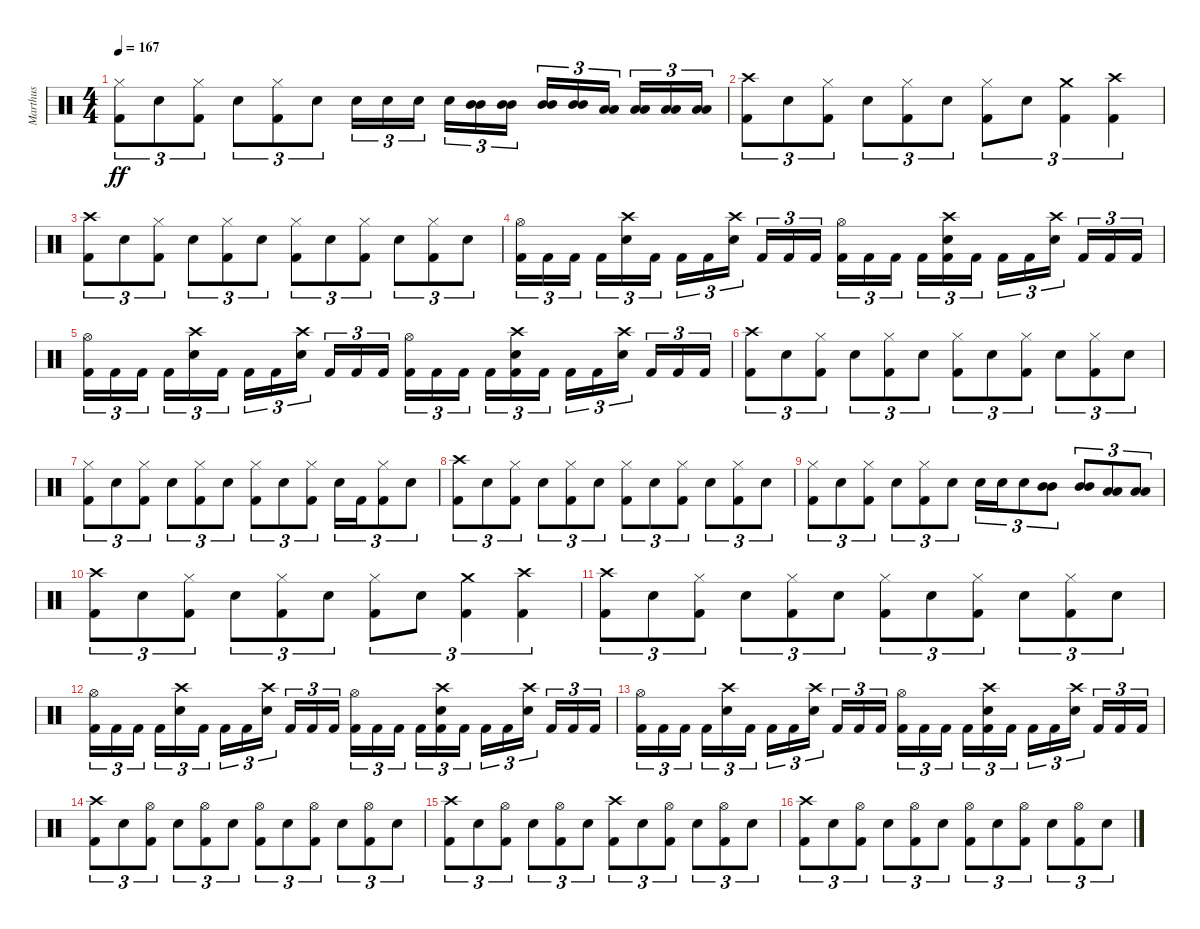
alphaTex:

\track ("Marthus" "Marthus") {instrument percussion}
\staff {score}
\articulation defaults
\ts (4 4)
\tempo 167
\clef neutral
\ks c
("Hi-Hat (closed)" "Kick (hit) 2").8{tu (3 2) dy ff} "Electric Snare (hit)".8{tu (3 2)} ("Hi-Hat (closed)" "Kick (hit) 2").8{tu (3 2)} "Electric Snare (hit)".8{tu (3 2)} ("Hi-Hat (closed)" "Kick (hit) 2").8{tu (3 2)} "Electric Snare (hit)".8{tu (3 2)} "Electric Snare (hit)".16{tu (3 2)} "Electric Snare (hit)".16{tu (3 2)} "Electric Snare (hit)".16{tu (3 2) beam splitsecondary} "Electric Snare (hit)".16{tu (3 2)} ("Mid Tom (hit)" "Mid Tom (hit)").16{tu (3 2)} ("Mid Tom (hit)" "Mid Tom (hit)").16{tu (3 2)} ("Mid Tom (hit)" "Mid Tom (hit)").16{tu (3 2)} ("Mid Tom (hit)" "Mid Tom (hit)").16{tu (3 2)} ("Low Tom (hit)" "Low Tom (hit)").16{tu (3 2) beam splitsecondary} ("Low Tom (hit)" "Low Tom (hit)").16{tu (3 2)} ("Low Tom (hit)" "Low Tom (hit)").16{tu (3 2)} ("Low Tom (hit)" "Low Tom (hit)").16{tu (3 2)} |
("Crash high (hit)" "Kick (hit) 2").8{tu (3 2)} "Electric Snare (hit)".8{tu (3 2)} ("Hi-Hat (closed)" "Kick (hit) 2").8{tu (3 2)} "Electric Snare (hit)".8{tu (3 2)} ("Hi-Hat (closed)" "Kick (hit) 2").8{tu (3 2)} "Electric Snare (hit)".8{tu (3 2)} ("Hi-Hat (closed)" "Kick (hit) 2").8{tu (3 2)} "Electric Snare (hit)".8{tu (3 2)} ("Crash medium (hit)" "Kick (hit) 2").4{tu (3 2)} ("Crash high (hit)" "Kick (hit) 2").4{tu (3 2)} |
("Crash high (hit)" "Kick (hit) 2").8{tu (3 2)} "Electric Snare (hit)".8{tu (3 2)} ("Hi-Hat (closed)" "Kick (hit) 2").8{tu (3 2)} "Electric Snare (hit)".8{tu (3 2)} ("Hi-Hat (closed)" "Kick (hit) 2").8{tu (3 2)} "Electric Snare (hit)".8{tu (3 2)} ("Hi-Hat (closed)" "Kick (hit) 2").8{tu (3 2)} "Electric Snare (hit)".8{tu (3 2)} ("Hi-Hat (closed)" "Kick (hit) 2").8{tu (3 2)} "Electric Snare (hit)".8{tu (3 2)} ("Hi-Hat (closed)" "Kick (hit) 2").8{tu (3 2)} "Electric Snare (hit)".8{tu (3 2)} |
("Hi-Hat (open)" "Kick (hit) 2").16{tu (3 2)} "Kick (hit) 2".16{tu (3 2)} "Kick (hit) 2".16{tu (3 2) beam splitsecondary} "Kick (hit) 2".16{tu (3 2)} ("Crash high (hit)" "Electric Snare (hit)").16{tu (3 2)} "Kick (hit) 2".16{tu (3 2)} "Kick (hit) 2".16{tu (3 2)} "Kick (hit) 2".16{tu (3 2)} ("Crash high (hit)" "Electric Snare (hit)").16{tu (3 2) beam splitsecondary} "Kick (hit) 2".16{tu (3 2)} "Kick (hit) 2".16{tu (3 2)} "Kick (hit) 2".16{tu (3 2)} ("Hi-Hat (open)" "Kick (hit) 2").16{tu (3 2)} "Kick (hit) 2".16{tu (3 2)} "Kick (hit) 2".16{tu (3 2) beam splitsecondary} "Kick (hit) 2".16{tu (3 2)} ("Crash high (hit)" "Electric Snare (hit)" "Kick (hit) 2").16{tu (3 2)} "Kick (hit) 2".16{tu (3 2)} "Kick (hit) 2".16{tu (3 2)} "Kick (hit) 2".16{tu (3 2)} ("Crash high (hit)" "Electric Snare (hit)").16{tu (3 2) beam splitsecondary} "Kick (hit) 2".16{tu (3 2)} "Kick (hit) 2".16{tu (3 2)} "Kick (hit) 2".16{tu (3 2)} |
("Hi-Hat (open)" "Kick (hit) 2").16{tu (3 2)} "Kick (hit) 2".16{tu (3 2)} "Kick (hit) 2".16{tu (3 2) beam splitsecondary} "Kick (hit) 2".16{tu (3 2)} ("Crash high (hit)" "Electric Snare (hit)").16{tu (3 2)} "Kick (hit) 2".16{tu (3 2)} "Kick (hit) 2".16{tu (3 2)} "Kick (hit) 2".16{tu (3 2)} ("Crash high (hit)" "Electric Snare (hit)").16{tu (3 2) beam splitsecondary} "Kick (hit) 2".16{tu (3 2)} "Kick (hit) 2".16{tu (3 2)} "Kick (hit) 2".16{tu (3 2)} ("Hi-Hat (open)" "Kick (hit) 2").16{tu (3 2)} "Kick (hit) 2".16{tu (3 2)} "Kick (hit) 2".16{tu (3 2) beam splitsecondary} "Kick (hit) 2".16{tu (3 2)} ("Crash high (hit)" "Electric Snare (hit)" "Kick (hit) 2").16{tu (3 2)} "Kick (hit) 2".16{tu (3 2)} "Kick (hit) 2".16{tu (3 2)} "Kick (hit) 2".16{tu (3 2)} ("Crash high (hit)" "Electric Snare (hit)").16{tu (3 2) beam splitsecondary} "Kick (hit) 2".16{tu (3 2)} "Kick (hit) 2".16{tu (3 2)} "Kick (hit) 2".16{tu (3 2)} |
("Crash high (hit)" "Kick (hit) 2").8{tu (3 2)} "Electric Snare (hit)".8{tu (3 2)} ("Hi-Hat (closed)" "Kick (hit) 2").8{tu (3 2)} "Electric Snare (hit)".8{tu (3 2)} ("Hi-Hat (closed)" "Kick (hit) 2").8{tu (3 2)} "Electric Snare (hit)".8{tu (3 2)} ("Hi-Hat (closed)" "Kick (hit) 2").8{tu (3 2)} "Electric Snare (hit)".8{tu (3 2)} ("Hi-Hat (closed)" "Kick (hit) 2").8{tu (3 2)} "Electric Snare (hit)".8{tu (3 2)} ("Hi-Hat (closed)" "Kick (hit) 2").8{tu (3 2)} "Electric Snare (hit)".8{tu (3 2)} |
("Hi-Hat (closed)" "Kick (hit) 2").8{tu (3 2)} "Electric Snare (hit)".8{tu (3 2)} ("Hi-Hat (closed)" "Kick (hit) 2").8{tu (3 2)} "Electric Snare (hit)".8{tu (3 2)} ("Hi-Hat (closed)" "Kick (hit) 2").8{tu (3 2)} "Electric Snare (hit)".8{tu (3 2)} ("Hi-Hat (closed)" "Kick (hit) 2").8{tu (3 2)} "Electric Snare (hit)".8{tu (3 2)} ("Hi-Hat (closed)" "Kick (hit) 2").8{tu (3 2)} "Electric Snare (hit)".16{tu (3 2)} "Kick (hit) 2".16{tu (3 2)} ("Hi-Hat (closed)" "Kick (hit) 2").8{tu (3 2)} "Electric Snare (hit)".8{tu (3 2)} |
("Crash high (hit)" "Kick (hit) 2").8{tu (3 2)} "Electric Snare (hit)".8{tu (3 2)} ("Hi-Hat (closed)" "Kick (hit) 2").8{tu (3 2)} "Electric Snare (hit)".8{tu (3 2)} ("Hi-Hat (closed)" "Kick (hit) 2").8{tu (3 2)} "Electric Snare (hit)".8{tu (3 2)} ("Hi-Hat (closed)" "Kick (hit) 2").8{tu (3 2)} "Electric Snare (hit)".8{tu (3 2)} ("Hi-Hat (closed)" "Kick (hit) 2").8{tu (3 2)} "Electric Snare (hit)".8{tu (3 2)} ("Hi-Hat (closed)" "Kick (hit) 2").8{tu (3 2)} "Electric Snare (hit)".8{tu (3 2)} |
("Hi-Hat (closed)" "Kick (hit) 2").8{tu (3 2)} "Electric Snare (hit)".8{tu (3 2)} ("Hi-Hat (closed)" "Kick (hit) 2").8{tu (3 2)} "Electric Snare (hit)".8{tu (3 2)} ("Hi-Hat (closed)" "Kick (hit) 2").8{tu (3 2)} "Electric Snare (hit)".8{tu (3 2)} "Electric Snare (hit)".16{tu (3 2)} "Electric Snare (hit)".16{tu (3 2)} "Electric Snare (hit)".8{tu (3 2)} ("Mid Tom (hit)" "Mid Tom (hit)").8{tu (3 2)} ("Mid Tom (hit)" "Mid Tom (hit)").8{tu (3 2)} ("Low Tom (hit)" "Low Tom (hit)").8{tu (3 2)} ("Low Tom (hit)" "Low Tom (hit)").8{tu (3 2)} |
("Crash high (hit)" "Kick (hit) 2").8{tu (3 2)} "Electric Snare (hit)".8{tu (3 2)} ("Hi-Hat (closed)" "Kick (hit) 2").8{tu (3 2)} "Electric Snare (hit)".8{tu (3 2)} ("Hi-Hat (closed)" "Kick (hit) 2").8{tu (3 2)} "Electric Snare (hit)".8{tu (3 2)} ("Hi-Hat (closed)" "Kick (hit) 2").8{tu (3 2)} "Electric Snare (hit)".8{tu (3 2)} ("Crash medium (hit)" "Kick (hit) 2").4{tu (3 2)} ("Crash high (hit)" "Kick (hit) 2").4{tu (3 2)} |
("Crash high (hit)" "Kick (hit) 2").8{tu (3 2)} "Electric Snare (hit)".8{tu (3 2)} ("Hi-Hat (closed)" "Kick (hit) 2").8{tu (3 2)} "Electric Snare (hit)".8{tu (3 2)} ("Hi-Hat (closed)" "Kick (hit) 2").8{tu (3 2)} "Electric Snare (hit)".8{tu (3 2)} ("Hi-Hat (closed)" "Kick (hit) 2").8{tu (3 2)} "Electric Snare (hit)".8{tu (3 2)} ("Hi-Hat (closed)" "Kick (hit) 2").8{tu (3 2)} "Electric Snare (hit)".8{tu (3 2)} ("Hi-Hat (closed)" "Kick (hit) 2").8{tu (3 2)} "Electric Snare (hit)".8{tu (3 2)} |
("Hi-Hat (open)" "Kick (hit) 2").16{tu (3 2)} "Kick (hit) 2".16{tu (3 2)} "Kick (hit) 2".16{tu (3 2) beam splitsecondary} "Kick (hit) 2".16{tu (3 2)} ("Crash high (hit)" "Electric Snare (hit)").16{tu (3 2)} "Kick (hit) 2".16{tu (3 2)} "Kick (hit) 2".16{tu (3 2)} "Kick (hit) 2".16{tu (3 2)} ("Crash high (hit)" "Electric Snare (hit)").16{tu (3 2) beam splitsecondary} "Kick (hit) 2".16{tu (3 2)} "Kick (hit) 2".16{tu (3 2)} "Kick (hit) 2".16{tu (3 2)} ("Hi-Hat (open)" "Kick (hit) 2").16{tu (3 2)} "Kick (hit) 2".16{tu (3 2)} "Kick (hit) 2".16{tu (3 2) beam splitsecondary} "Kick (hit) 2".16{tu (3 2)} ("Crash high (hit)" "Electric Snare (hit)" "Kick (hit) 2").16{tu (3 2)} "Kick (hit) 2".16{tu (3 2)} "Kick (hit) 2".16{tu (3 2)} "Kick (hit) 2".16{tu (3 2)} ("Crash high (hit)" "Electric Snare (hit)").16{tu (3 2) beam splitsecondary} "Kick (hit) 2".16{tu (3 2)} "Kick (hit) 2".16{tu (3 2)} "Kick (hit) 2".16{tu (3 2)} |
("Hi-Hat (open)" "Kick (hit) 2").16{tu (3 2)} "Kick (hit) 2".16{tu (3 2)} "Kick (hit) 2".16{tu (3 2) beam splitsecondary} "Kick (hit) 2".16{tu (3 2)} ("Crash high (hit)" "Electric Snare (hit)").16{tu (3 2)} "Kick (hit) 2".16{tu (3 2)} "Kick (hit) 2".16{tu (3 2)} "Kick (hit) 2".16{tu (3 2)} ("Crash high (hit)" "Electric Snare (hit)").16{tu (3 2) beam splitsecondary} "Kick (hit) 2".16{tu (3 2)} "Kick (hit) 2".16{tu (3 2)} "Kick (hit) 2".16{tu (3 2)} ("Hi-Hat (open)" "Kick (hit) 2").16{tu (3 2)} "Kick (hit) 2".16{tu (3 2)} "Kick (hit) 2".16{tu (3 2) beam splitsecondary} "Kick (hit) 2".16{tu (3 2)} ("Crash high (hit)" "Electric Snare (hit)" "Kick (hit) 2").16{tu (3 2)} "Kick (hit) 2".16{tu (3 2)} "Kick (hit) 2".16{tu (3 2)} "Kick (hit) 2".16{tu (3 2)} ("Crash high (hit)" "Electric Snare (hit)").16{tu (3 2) beam splitsecondary} "Kick (hit) 2".16{tu (3 2)} "Kick (hit) 2".16{tu (3 2)} "Kick (hit) 2".16{tu (3 2)} |
("Crash high (hit)" "Kick (hit) 2").8{tu (3 2)} "Electric Snare (hit)".8{tu (3 2)} ("Hi-Hat (open)" "Kick (hit) 2").8{tu (3 2)} "Electric Snare (hit)".8{tu (3 2)} ("Hi-Hat (open)" "Kick (hit) 2").8{tu (3 2)} "Electric Snare (hit)".8{tu (3 2)} ("Hi-Hat (open)" "Kick (hit) 2").8{tu (3 2)} "Electric Snare (hit)".8{tu (3 2)} ("Hi-Hat (open)" "Kick (hit) 2").8{tu (3 2)} "Electric Snare (hit)".8{tu (3 2)} ("Hi-Hat (open)" "Kick (hit) 2").8{tu (3 2)} "Electric Snare (hit)".8{tu (3 2)} |
("Crash high (hit)" "Kick (hit) 2").8{tu (3 2)} "Electric Snare (hit)".8{tu (3 2)} ("Hi-Hat (open)" "Kick (hit) 2").8{tu (3 2)} "Electric Snare (hit)".8{tu (3 2)} ("Hi-Hat (open)" "Kick (hit) 2").8{tu (3 2)} "Electric Snare (hit)".8{tu (3 2)} ("Crash high (hit)" "Kick (hit) 2").8{tu (3 2)} "Electric Snare (hit)".8{tu (3 2)} ("Hi-Hat (open)" "Kick (hit) 2").8{tu (3 2)} "Electric Snare (hit)".8{tu (3 2)} ("Hi-Hat (open)" "Kick (hit) 2").8{tu (3 2)} "Electric Snare (hit)".8{tu (3 2)} |
("Crash high (hit)" "Kick (hit) 2").8{tu (3 2)} "Electric Snare (hit)".8{tu (3 2)} ("Hi-Hat (open)" "Kick (hit) 2").8{tu (3 2)} "Electric Snare (hit)".8{tu (3 2)} ("Hi-Hat (open)" "Kick (hit) 2").8{tu (3 2)} "Electric Snare (hit)".8{tu (3 2)} ("Hi-Hat (open)" "Kick (hit) 2").8{tu (3 2)} "Electric Snare (hit)".8{tu (3 2)} ("Hi-Hat (open)" "Kick (hit) 2").8{tu (3 2)} "Electric Snare (hit)".8{tu (3 2)} ("Hi-Hat (open)" "Kick (hit) 2").8{tu (3 2)} "Electric Snare (hit)".8{tu (3 2)}
